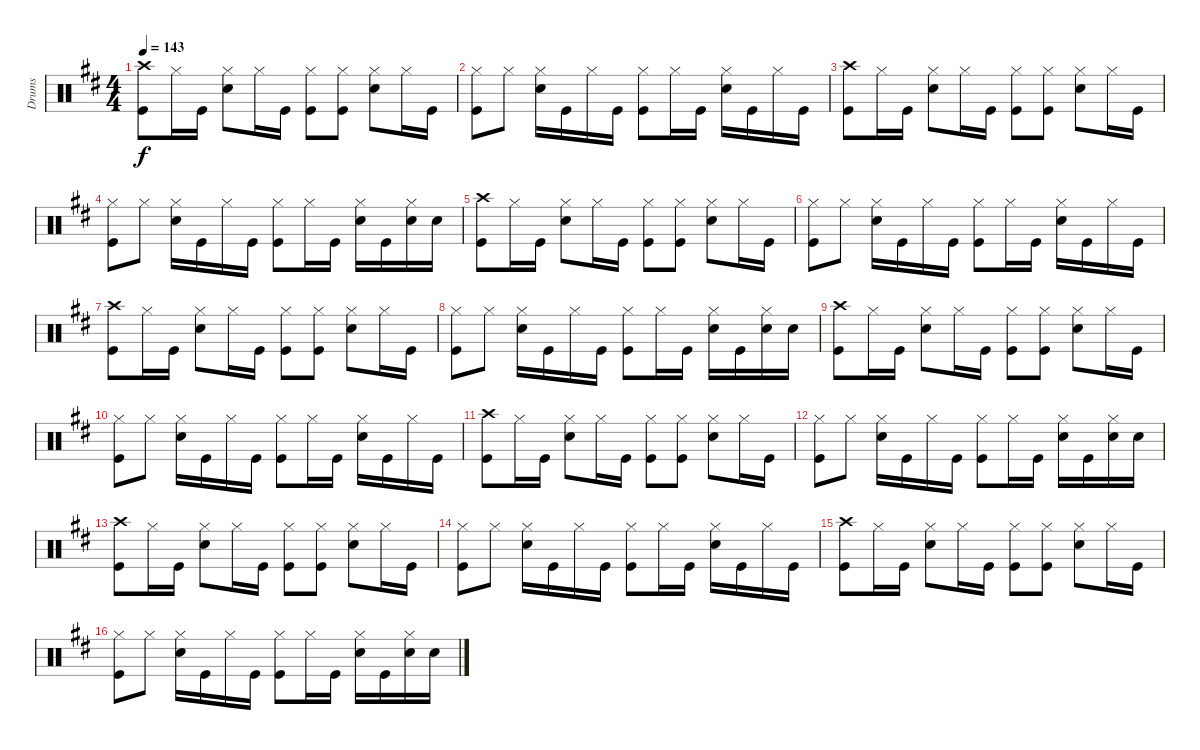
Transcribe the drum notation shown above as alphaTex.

\track ("Drums" "Drums") {instrument percussion}
\staff {score}
\articulation defaults
\ts (4 4)
\tempo 143
\clef neutral
\ks bminor
("Crash high (hit)" "Kick (hit)").8{dy f} "Hi-Hat (closed)".16 "Kick (hit)".16 ("Hi-Hat (closed)" "Snare (hit) 2").8 "Hi-Hat (closed)".16 "Kick (hit)".16 ("Hi-Hat (closed)" "Kick (hit)").8 ("Hi-Hat (closed)" "Kick (hit)").8 ("Hi-Hat (closed)" "Snare (hit) 2").8 "Hi-Hat (closed)".16 "Kick (hit)".16 |
("Hi-Hat (closed)" "Kick (hit)").8 "Hi-Hat (closed)".8 ("Hi-Hat (closed)" "Snare (hit) 2").16 "Kick (hit)".16 "Hi-Hat (closed)".16 "Kick (hit)".16 ("Hi-Hat (closed)" "Kick (hit)").8 "Hi-Hat (closed)".16 "Kick (hit)".16 ("Hi-Hat (closed)" "Snare (hit) 2").16 "Kick (hit)".16 "Hi-Hat (closed)".16 "Kick (hit)".16 |
("Crash high (hit)" "Kick (hit)").8 "Hi-Hat (closed)".16 "Kick (hit)".16 ("Hi-Hat (closed)" "Snare (hit) 2").8 "Hi-Hat (closed)".16 "Kick (hit)".16 ("Hi-Hat (closed)" "Kick (hit)").8 ("Hi-Hat (closed)" "Kick (hit)").8 ("Hi-Hat (closed)" "Snare (hit) 2").8 "Hi-Hat (closed)".16 "Kick (hit)".16 |
("Hi-Hat (closed)" "Kick (hit)").8 "Hi-Hat (closed)".8 ("Hi-Hat (closed)" "Snare (hit) 2").16 "Kick (hit)".16 "Hi-Hat (closed)".16 "Kick (hit)".16 ("Hi-Hat (closed)" "Kick (hit)").8 "Hi-Hat (closed)".16 "Kick (hit)".16 ("Hi-Hat (closed)" "Snare (hit) 2").16 "Kick (hit)".16 ("Hi-Hat (closed)" "Snare (hit) 2").16 "Snare (hit) 2".16 |
("Crash high (hit)" "Kick (hit)").8 "Hi-Hat (closed)".16 "Kick (hit)".16 ("Hi-Hat (closed)" "Snare (hit) 2").8 "Hi-Hat (closed)".16 "Kick (hit)".16 ("Hi-Hat (closed)" "Kick (hit)").8 ("Hi-Hat (closed)" "Kick (hit)").8 ("Hi-Hat (closed)" "Snare (hit) 2").8 "Hi-Hat (closed)".16 "Kick (hit)".16 |
("Hi-Hat (closed)" "Kick (hit)").8 "Hi-Hat (closed)".8 ("Hi-Hat (closed)" "Snare (hit) 2").16 "Kick (hit)".16 "Hi-Hat (closed)".16 "Kick (hit)".16 ("Hi-Hat (closed)" "Kick (hit)").8 "Hi-Hat (closed)".16 "Kick (hit)".16 ("Hi-Hat (closed)" "Snare (hit) 2").16 "Kick (hit)".16 "Hi-Hat (closed)".16 "Kick (hit)".16 |
("Crash high (hit)" "Kick (hit)").8 "Hi-Hat (closed)".16 "Kick (hit)".16 ("Hi-Hat (closed)" "Snare (hit) 2").8 "Hi-Hat (closed)".16 "Kick (hit)".16 ("Hi-Hat (closed)" "Kick (hit)").8 ("Hi-Hat (closed)" "Kick (hit)").8 ("Hi-Hat (closed)" "Snare (hit) 2").8 "Hi-Hat (closed)".16 "Kick (hit)".16 |
("Hi-Hat (closed)" "Kick (hit)").8 "Hi-Hat (closed)".8 ("Hi-Hat (closed)" "Snare (hit) 2").16 "Kick (hit)".16 "Hi-Hat (closed)".16 "Kick (hit)".16 ("Hi-Hat (closed)" "Kick (hit)").8 "Hi-Hat (closed)".16 "Kick (hit)".16 ("Hi-Hat (closed)" "Snare (hit) 2").16 "Kick (hit)".16 ("Hi-Hat (closed)" "Snare (hit) 2").16 "Snare (hit) 2".16 |
("Crash high (hit)" "Kick (hit)").8 "Hi-Hat (closed)".16 "Kick (hit)".16 ("Hi-Hat (closed)" "Snare (hit) 2").8 "Hi-Hat (closed)".16 "Kick (hit)".16 ("Hi-Hat (closed)" "Kick (hit)").8 ("Hi-Hat (closed)" "Kick (hit)").8 ("Hi-Hat (closed)" "Snare (hit) 2").8 "Hi-Hat (closed)".16 "Kick (hit)".16 |
("Hi-Hat (closed)" "Kick (hit)").8 "Hi-Hat (closed)".8 ("Hi-Hat (closed)" "Snare (hit) 2").16 "Kick (hit)".16 "Hi-Hat (closed)".16 "Kick (hit)".16 ("Hi-Hat (closed)" "Kick (hit)").8 "Hi-Hat (closed)".16 "Kick (hit)".16 ("Hi-Hat (closed)" "Snare (hit) 2").16 "Kick (hit)".16 "Hi-Hat (closed)".16 "Kick (hit)".16 |
("Crash high (hit)" "Kick (hit)").8 "Hi-Hat (closed)".16 "Kick (hit)".16 ("Hi-Hat (closed)" "Snare (hit) 2").8 "Hi-Hat (closed)".16 "Kick (hit)".16 ("Hi-Hat (closed)" "Kick (hit)").8 ("Hi-Hat (closed)" "Kick (hit)").8 ("Hi-Hat (closed)" "Snare (hit) 2").8 "Hi-Hat (closed)".16 "Kick (hit)".16 |
("Hi-Hat (closed)" "Kick (hit)").8 "Hi-Hat (closed)".8 ("Hi-Hat (closed)" "Snare (hit) 2").16 "Kick (hit)".16 "Hi-Hat (closed)".16 "Kick (hit)".16 ("Hi-Hat (closed)" "Kick (hit)").8 "Hi-Hat (closed)".16 "Kick (hit)".16 ("Hi-Hat (closed)" "Snare (hit) 2").16 "Kick (hit)".16 ("Hi-Hat (closed)" "Snare (hit) 2").16 "Snare (hit) 2".16 |
("Crash high (hit)" "Kick (hit)").8 "Hi-Hat (closed)".16 "Kick (hit)".16 ("Hi-Hat (closed)" "Snare (hit) 2").8 "Hi-Hat (closed)".16 "Kick (hit)".16 ("Hi-Hat (closed)" "Kick (hit)").8 ("Hi-Hat (closed)" "Kick (hit)").8 ("Hi-Hat (closed)" "Snare (hit) 2").8 "Hi-Hat (closed)".16 "Kick (hit)".16 |
("Hi-Hat (closed)" "Kick (hit)").8 "Hi-Hat (closed)".8 ("Hi-Hat (closed)" "Snare (hit) 2").16 "Kick (hit)".16 "Hi-Hat (closed)".16 "Kick (hit)".16 ("Hi-Hat (closed)" "Kick (hit)").8 "Hi-Hat (closed)".16 "Kick (hit)".16 ("Hi-Hat (closed)" "Snare (hit) 2").16 "Kick (hit)".16 "Hi-Hat (closed)".16 "Kick (hit)".16 |
("Crash high (hit)" "Kick (hit)").8 "Hi-Hat (closed)".16 "Kick (hit)".16 ("Hi-Hat (closed)" "Snare (hit) 2").8 "Hi-Hat (closed)".16 "Kick (hit)".16 ("Hi-Hat (closed)" "Kick (hit)").8 ("Hi-Hat (closed)" "Kick (hit)").8 ("Hi-Hat (closed)" "Snare (hit) 2").8 "Hi-Hat (closed)".16 "Kick (hit)".16 |
("Hi-Hat (closed)" "Kick (hit)").8 "Hi-Hat (closed)".8 ("Hi-Hat (closed)" "Snare (hit) 2").16 "Kick (hit)".16 "Hi-Hat (closed)".16 "Kick (hit)".16 ("Hi-Hat (closed)" "Kick (hit)").8 "Hi-Hat (closed)".16 "Kick (hit)".16 ("Hi-Hat (closed)" "Snare (hit) 2").16 "Kick (hit)".16 ("Hi-Hat (closed)" "Snare (hit) 2").16 "Snare (hit) 2".16
